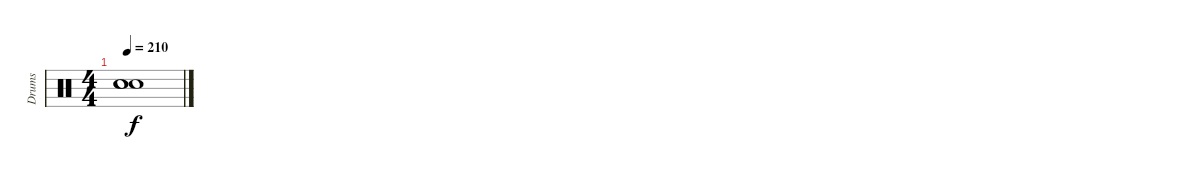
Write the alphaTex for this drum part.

\track ("Drums" "Drums") {instrument percussion}
\staff {score}
\articulation defaults
\ts (4 4)
\tempo 210
\clef neutral
\ks c
("Snare (hit)"{t} "Snare (hit)"{t} "Snare (hit)"{t}).1{dy f}
